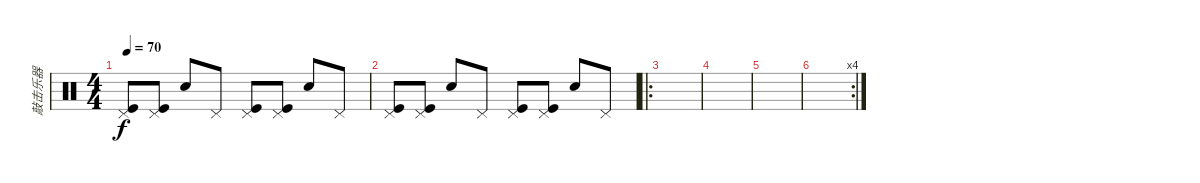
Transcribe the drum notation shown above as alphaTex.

\track ("敲击乐器" "敲击乐器") {instrument percussion}
\staff {score}
\articulation defaults
\ts (4 4)
\tempo 70
\clef neutral
\ks c
("Pedal Hi-Hat (hit)" "Kick (hit)").8{dy f} ("Pedal Hi-Hat (hit)" "Kick (hit)").8 "Snare (hit) 2".8 "Pedal Hi-Hat (hit)".8 ("Pedal Hi-Hat (hit)" "Kick (hit)").8 ("Pedal Hi-Hat (hit)" "Kick (hit)").8 "Snare (hit) 2".8 "Pedal Hi-Hat (hit)".8 |
("Pedal Hi-Hat (hit)" "Kick (hit)").8 ("Pedal Hi-Hat (hit)" "Kick (hit)").8 "Snare (hit) 2".8 "Pedal Hi-Hat (hit)".8 ("Pedal Hi-Hat (hit)" "Kick (hit)").8 ("Pedal Hi-Hat (hit)" "Kick (hit)").8 "Snare (hit) 2".8 "Pedal Hi-Hat (hit)".8 |
\ro
|
|
|
\rc 4
